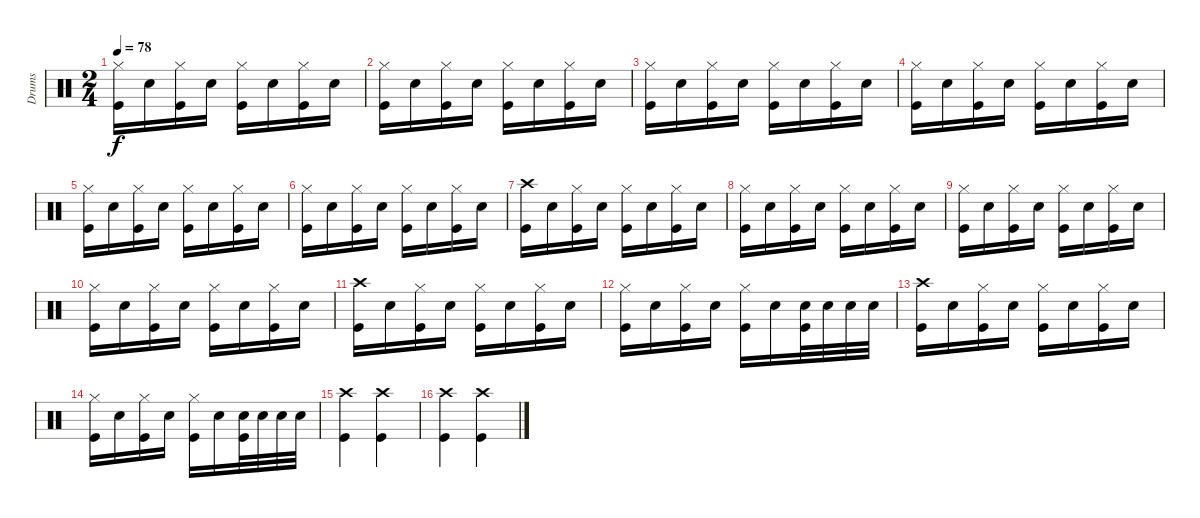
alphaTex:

\track ("Drums" "Drums") {instrument percussion}
\staff {score}
\articulation defaults
\ts (2 4)
\tempo 78
\clef neutral
\ks c
("Hi-Hat (closed)" "Kick (hit)").16{dy f} "Electric Snare (hit)".16 ("Hi-Hat (closed)" "Kick (hit)").16 "Electric Snare (hit)".16 ("Hi-Hat (closed)" "Kick (hit)").16 "Electric Snare (hit)".16 ("Hi-Hat (closed)" "Kick (hit)").16 "Electric Snare (hit)".16 |
("Hi-Hat (closed)" "Kick (hit)").16 "Electric Snare (hit)".16 ("Hi-Hat (closed)" "Kick (hit)").16 "Electric Snare (hit)".16 ("Hi-Hat (closed)" "Kick (hit)").16 "Electric Snare (hit)".16 ("Hi-Hat (closed)" "Kick (hit)").16 "Electric Snare (hit)".16 |
("Hi-Hat (closed)" "Kick (hit)").16 "Electric Snare (hit)".16 ("Hi-Hat (closed)" "Kick (hit)").16 "Electric Snare (hit)".16 ("Hi-Hat (closed)" "Kick (hit)").16 "Electric Snare (hit)".16 ("Hi-Hat (closed)" "Kick (hit)").16 "Electric Snare (hit)".16 |
("Hi-Hat (closed)" "Kick (hit)").16 "Electric Snare (hit)".16 ("Hi-Hat (closed)" "Kick (hit)").16 "Electric Snare (hit)".16 ("Hi-Hat (closed)" "Kick (hit)").16 "Electric Snare (hit)".16 ("Hi-Hat (closed)" "Kick (hit)").16 "Electric Snare (hit)".16 |
("Hi-Hat (closed)" "Kick (hit)").16 "Electric Snare (hit)".16 ("Hi-Hat (closed)" "Kick (hit)").16 "Electric Snare (hit)".16 ("Hi-Hat (closed)" "Kick (hit)").16 "Electric Snare (hit)".16 ("Hi-Hat (closed)" "Kick (hit)").16 "Electric Snare (hit)".16 |
("Hi-Hat (closed)" "Kick (hit)").16 "Electric Snare (hit)".16 ("Hi-Hat (closed)" "Kick (hit)").16 "Electric Snare (hit)".16 ("Hi-Hat (closed)" "Kick (hit)").16 "Electric Snare (hit)".16 ("Hi-Hat (closed)" "Kick (hit)").16 "Electric Snare (hit)".16 |
("Crash high (hit)" "Kick (hit)").16 "Electric Snare (hit)".16 ("Hi-Hat (closed)" "Kick (hit)").16 "Electric Snare (hit)".16 ("Hi-Hat (closed)" "Kick (hit)").16 "Electric Snare (hit)".16 ("Hi-Hat (closed)" "Kick (hit)").16 "Electric Snare (hit)".16 |
("Hi-Hat (closed)" "Kick (hit)").16 "Electric Snare (hit)".16 ("Hi-Hat (closed)" "Kick (hit)").16 "Electric Snare (hit)".16 ("Hi-Hat (closed)" "Kick (hit)").16 "Electric Snare (hit)".16 ("Hi-Hat (closed)" "Kick (hit)").16 "Electric Snare (hit)".16 |
("Hi-Hat (closed)" "Kick (hit)").16 "Electric Snare (hit)".16 ("Hi-Hat (closed)" "Kick (hit)").16 "Electric Snare (hit)".16 ("Hi-Hat (closed)" "Kick (hit)").16 "Electric Snare (hit)".16 ("Hi-Hat (closed)" "Kick (hit)").16 "Electric Snare (hit)".16 |
("Hi-Hat (closed)" "Kick (hit)").16 "Electric Snare (hit)".16 ("Hi-Hat (closed)" "Kick (hit)").16 "Electric Snare (hit)".16 ("Hi-Hat (closed)" "Kick (hit)").16 "Electric Snare (hit)".16 ("Hi-Hat (closed)" "Kick (hit)").16 "Electric Snare (hit)".16 |
("Crash high (hit)" "Kick (hit)").16 "Electric Snare (hit)".16 ("Hi-Hat (closed)" "Kick (hit)").16 "Electric Snare (hit)".16 ("Hi-Hat (closed)" "Kick (hit)").16 "Electric Snare (hit)".16 ("Hi-Hat (closed)" "Kick (hit)").16 "Electric Snare (hit)".16 |
("Hi-Hat (closed)" "Kick (hit)").16 "Electric Snare (hit)".16 ("Hi-Hat (closed)" "Kick (hit)").16 "Electric Snare (hit)".16 ("Hi-Hat (closed)" "Kick (hit)").16 "Electric Snare (hit)".16 ("Electric Snare (hit)" "Kick (hit)").32 "Electric Snare (hit)".32 "Electric Snare (hit)".32 "Electric Snare (hit)".32 |
("Crash high (hit)" "Kick (hit)").16 "Electric Snare (hit)".16 ("Hi-Hat (closed)" "Kick (hit)").16 "Electric Snare (hit)".16 ("Hi-Hat (closed)" "Kick (hit)").16 "Electric Snare (hit)".16 ("Hi-Hat (closed)" "Kick (hit)").16 "Electric Snare (hit)".16 |
("Hi-Hat (closed)" "Kick (hit)").16 "Electric Snare (hit)".16 ("Hi-Hat (closed)" "Kick (hit)").16 "Electric Snare (hit)".16 ("Hi-Hat (closed)" "Kick (hit)").16 "Electric Snare (hit)".16 ("Electric Snare (hit)" "Kick (hit)").32 "Electric Snare (hit)".32 "Electric Snare (hit)".32 "Electric Snare (hit)".32 |
("Crash high (hit)" "Kick (hit)").4 ("Crash high (hit)" "Kick (hit)").4 |
("Crash high (hit)" "Kick (hit)").4 ("Crash high (hit)" "Kick (hit)").4
